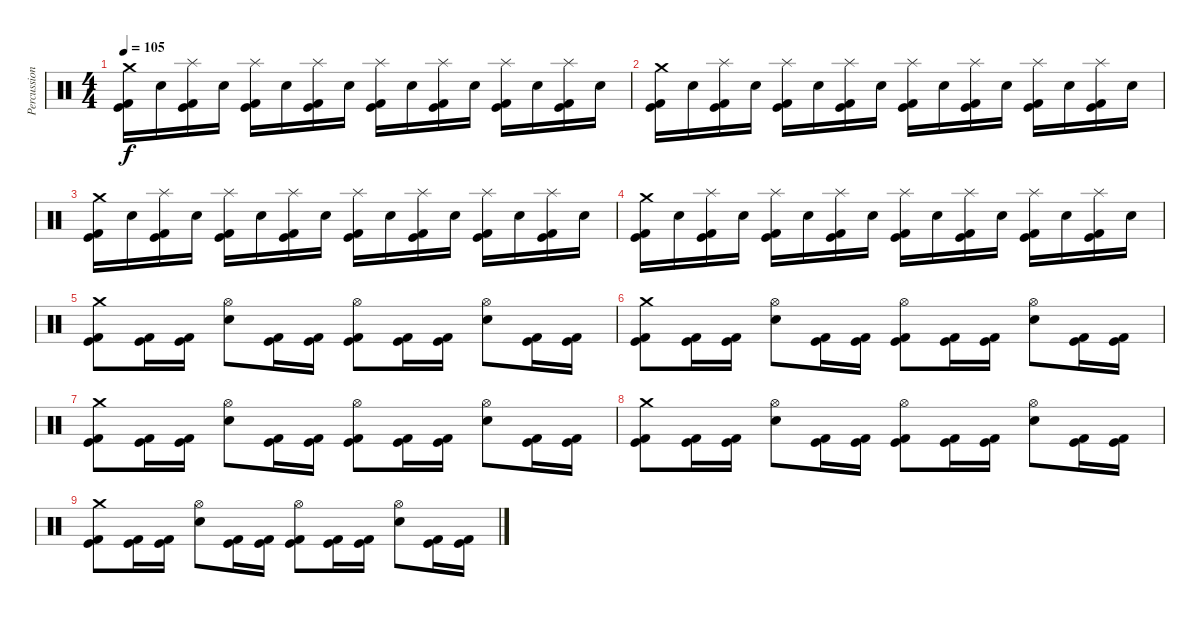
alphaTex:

\track ("Percussions" "Percussion") {instrument percussion}
\staff {score}
\articulation defaults
\ts (4 4)
\tempo 105
\clef neutral
\ks c
("Crash medium (hit)" "Kick (hit)" "Kick (hit) 2").16{dy f} "Electric Snare (hit)".16 ("Splash (hit)" "Kick (hit)" "Kick (hit) 2").16 "Electric Snare (hit)".16 ("Splash (hit)" "Kick (hit)" "Kick (hit) 2").16 "Electric Snare (hit)".16 ("Splash (hit)" "Kick (hit)" "Kick (hit) 2").16 "Electric Snare (hit)".16 ("Splash (hit)" "Kick (hit)" "Kick (hit) 2").16 "Electric Snare (hit)".16 ("Splash (hit)" "Kick (hit)" "Kick (hit) 2").16 "Electric Snare (hit)".16 ("Splash (hit)" "Kick (hit)" "Kick (hit) 2").16 "Electric Snare (hit)".16 ("Splash (hit)" "Kick (hit)" "Kick (hit) 2").16 "Electric Snare (hit)".16 |
("Crash medium (hit)" "Kick (hit)" "Kick (hit) 2").16 "Electric Snare (hit)".16 ("Splash (hit)" "Kick (hit)" "Kick (hit) 2").16 "Electric Snare (hit)".16 ("Splash (hit)" "Kick (hit)" "Kick (hit) 2").16 "Electric Snare (hit)".16 ("Splash (hit)" "Kick (hit)" "Kick (hit) 2").16 "Electric Snare (hit)".16 ("Splash (hit)" "Kick (hit)" "Kick (hit) 2").16 "Electric Snare (hit)".16 ("Splash (hit)" "Kick (hit)" "Kick (hit) 2").16 "Electric Snare (hit)".16 ("Splash (hit)" "Kick (hit)" "Kick (hit) 2").16 "Electric Snare (hit)".16 ("Splash (hit)" "Kick (hit)" "Kick (hit) 2").16 "Electric Snare (hit)".16 |
("Crash medium (hit)" "Kick (hit)" "Kick (hit) 2").16 "Electric Snare (hit)".16 ("Splash (hit)" "Kick (hit)" "Kick (hit) 2").16 "Electric Snare (hit)".16 ("Splash (hit)" "Kick (hit)" "Kick (hit) 2").16 "Electric Snare (hit)".16 ("Splash (hit)" "Kick (hit)" "Kick (hit) 2").16 "Electric Snare (hit)".16 ("Splash (hit)" "Kick (hit)" "Kick (hit) 2").16 "Electric Snare (hit)".16 ("Splash (hit)" "Kick (hit)" "Kick (hit) 2").16 "Electric Snare (hit)".16 ("Splash (hit)" "Kick (hit)" "Kick (hit) 2").16 "Electric Snare (hit)".16 ("Splash (hit)" "Kick (hit)" "Kick (hit) 2").16 "Electric Snare (hit)".16 |
("Crash medium (hit)" "Kick (hit)" "Kick (hit) 2").16 "Electric Snare (hit)".16 ("Splash (hit)" "Kick (hit)" "Kick (hit) 2").16 "Electric Snare (hit)".16 ("Splash (hit)" "Kick (hit)" "Kick (hit) 2").16 "Electric Snare (hit)".16 ("Splash (hit)" "Kick (hit)" "Kick (hit) 2").16 "Electric Snare (hit)".16 ("Splash (hit)" "Kick (hit)" "Kick (hit) 2").16 "Electric Snare (hit)".16 ("Splash (hit)" "Kick (hit)" "Kick (hit) 2").16 "Electric Snare (hit)".16 ("Splash (hit)" "Kick (hit)" "Kick (hit) 2").16 "Electric Snare (hit)".16 ("Splash (hit)" "Kick (hit)" "Kick (hit) 2").16 "Electric Snare (hit)".16 |
("Crash medium (hit)" "Kick (hit)" "Kick (hit) 2").8 ("Kick (hit)" "Kick (hit) 2").16 ("Kick (hit)" "Kick (hit) 2").16 ("Hi-Hat (open)" "Electric Snare (hit)").8 ("Kick (hit)" "Kick (hit) 2").16 ("Kick (hit)" "Kick (hit) 2").16 ("Hi-Hat (open)" "Kick (hit)" "Kick (hit) 2").8 ("Kick (hit)" "Kick (hit) 2").16 ("Kick (hit)" "Kick (hit) 2").16 ("Hi-Hat (open)" "Electric Snare (hit)").8 ("Kick (hit)" "Kick (hit) 2").16 ("Kick (hit)" "Kick (hit) 2").16 |
("Crash medium (hit)" "Kick (hit)" "Kick (hit) 2").8 ("Kick (hit)" "Kick (hit) 2").16 ("Kick (hit)" "Kick (hit) 2").16 ("Hi-Hat (open)" "Electric Snare (hit)").8 ("Kick (hit)" "Kick (hit) 2").16 ("Kick (hit)" "Kick (hit) 2").16 ("Hi-Hat (open)" "Kick (hit)" "Kick (hit) 2").8 ("Kick (hit)" "Kick (hit) 2").16 ("Kick (hit)" "Kick (hit) 2").16 ("Hi-Hat (open)" "Electric Snare (hit)").8 ("Kick (hit)" "Kick (hit) 2").16 ("Kick (hit)" "Kick (hit) 2").16 |
("Crash medium (hit)" "Kick (hit)" "Kick (hit) 2").8 ("Kick (hit)" "Kick (hit) 2").16 ("Kick (hit)" "Kick (hit) 2").16 ("Hi-Hat (open)" "Electric Snare (hit)").8 ("Kick (hit)" "Kick (hit) 2").16 ("Kick (hit)" "Kick (hit) 2").16 ("Hi-Hat (open)" "Kick (hit)" "Kick (hit) 2").8 ("Kick (hit)" "Kick (hit) 2").16 ("Kick (hit)" "Kick (hit) 2").16 ("Hi-Hat (open)" "Electric Snare (hit)").8 ("Kick (hit)" "Kick (hit) 2").16 ("Kick (hit)" "Kick (hit) 2").16 |
("Crash medium (hit)" "Kick (hit)" "Kick (hit) 2").8 ("Kick (hit)" "Kick (hit) 2").16 ("Kick (hit)" "Kick (hit) 2").16 ("Hi-Hat (open)" "Electric Snare (hit)").8 ("Kick (hit)" "Kick (hit) 2").16 ("Kick (hit)" "Kick (hit) 2").16 ("Hi-Hat (open)" "Kick (hit)" "Kick (hit) 2").8 ("Kick (hit)" "Kick (hit) 2").16 ("Kick (hit)" "Kick (hit) 2").16 ("Hi-Hat (open)" "Electric Snare (hit)").8 ("Kick (hit)" "Kick (hit) 2").16 ("Kick (hit)" "Kick (hit) 2").16 |
("Crash medium (hit)" "Kick (hit)" "Kick (hit) 2").8 ("Kick (hit)" "Kick (hit) 2").16 ("Kick (hit)" "Kick (hit) 2").16 ("Hi-Hat (open)" "Electric Snare (hit)").8 ("Kick (hit)" "Kick (hit) 2").16 ("Kick (hit)" "Kick (hit) 2").16 ("Hi-Hat (open)" "Kick (hit)" "Kick (hit) 2").8 ("Kick (hit)" "Kick (hit) 2").16 ("Kick (hit)" "Kick (hit) 2").16 ("Hi-Hat (open)" "Electric Snare (hit)").8 ("Kick (hit)" "Kick (hit) 2").16 ("Kick (hit)" "Kick (hit) 2").16
